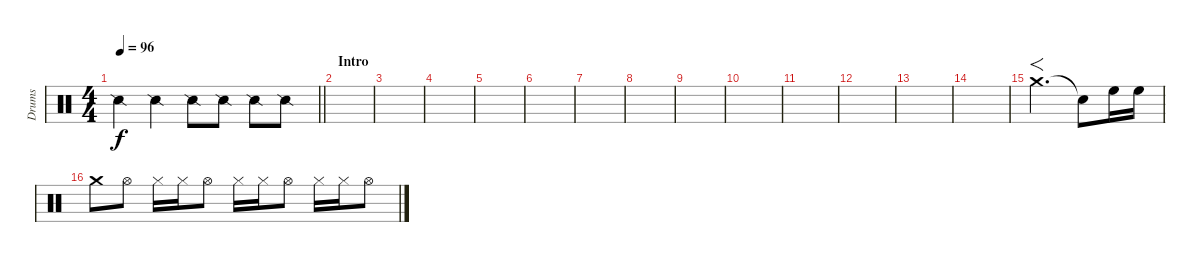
\track ("Drums" "Drums") {instrument percussion}
\staff {score}
\articulation defaults
\ts (4 4)
\tempo 96
\clef neutral
\barLineRight lightlight
\ks c "Snare (side stick) 2".4{dy f} "Snare (side stick) 2".4 "Snare (side stick) 2".8 "Snare (side stick) 2".8 "Snare (side stick) 2".8 "Snare (side stick) 2".8
|
\section ("" "Intro")
|
|
|
|
|
|
|
|
|
|
|
|
|
"Crash medium (hit)".2{f d} "Snare (hit)"{t}.8 "High Floor Tom (hit)".16 "High Floor Tom (hit)".16 |
"Crash medium (hit)".8 "Hi-Hat (open)".8 "Hi-Hat (closed)".16 "Hi-Hat (closed)".16 "Hi-Hat (open)".8 "Hi-Hat (closed)".16 "Hi-Hat (closed)".16 "Hi-Hat (open)".8 "Hi-Hat (closed)".16 "Hi-Hat (closed)".16 "Hi-Hat (open)".8
